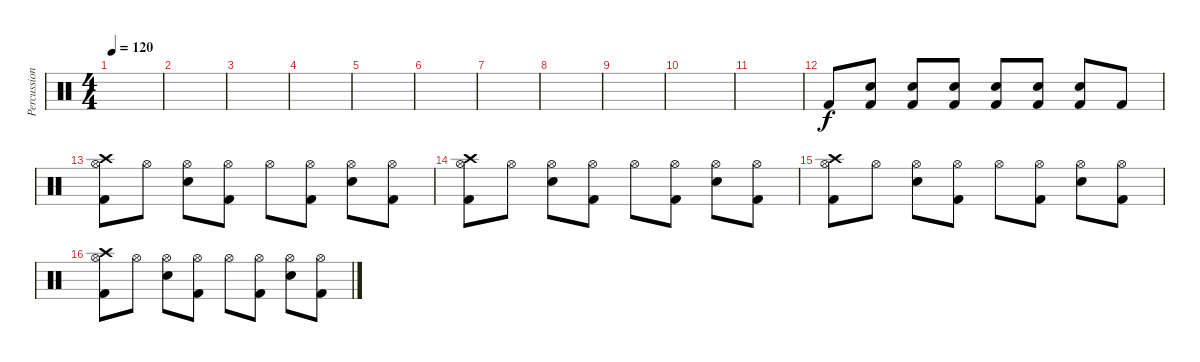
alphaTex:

\track ("Percussion" "Percussion") {instrument percussion}
\staff {score}
\articulation defaults
\ts (4 4)
\tempo 120
\clef neutral
\ks c
|
|
|
|
|
|
|
|
|
|
|
"Kick (hit) 2".8 ("Electric Snare (hit)" "Kick (hit) 2").8 ("Electric Snare (hit)" "Kick (hit) 2").8 ("Kick (hit) 2" "Electric Snare (hit)").8 ("Electric Snare (hit)" "Kick (hit) 2").8 ("Electric Snare (hit)" "Kick (hit) 2").8 ("Kick (hit) 2" "Electric Snare (hit)").8 "Kick (hit) 2".8 |
("Kick (hit) 2" "Hi-Hat (open)" "Crash high (hit)").8 "Hi-Hat (open)".8 ("Electric Snare (hit)" "Hi-Hat (open)").8 ("Kick (hit) 2" "Hi-Hat (open)").8 "Hi-Hat (open)".8 ("Kick (hit) 2" "Hi-Hat (open)").8 ("Electric Snare (hit)" "Hi-Hat (open)").8 ("Kick (hit) 2" "Hi-Hat (open)").8 |
("Kick (hit) 2" "Hi-Hat (open)" "Crash high (hit)").8 "Hi-Hat (open)".8 ("Electric Snare (hit)" "Hi-Hat (open)").8 ("Kick (hit) 2" "Hi-Hat (open)").8 "Hi-Hat (open)".8 ("Kick (hit) 2" "Hi-Hat (open)").8 ("Electric Snare (hit)" "Hi-Hat (open)").8 ("Kick (hit) 2" "Hi-Hat (open)").8 |
("Kick (hit) 2" "Hi-Hat (open)" "Crash high (hit)").8 "Hi-Hat (open)".8 ("Electric Snare (hit)" "Hi-Hat (open)").8 ("Kick (hit) 2" "Hi-Hat (open)").8 "Hi-Hat (open)".8 ("Kick (hit) 2" "Hi-Hat (open)").8 ("Electric Snare (hit)" "Hi-Hat (open)").8 ("Kick (hit) 2" "Hi-Hat (open)").8 |
("Kick (hit) 2" "Hi-Hat (open)" "Crash high (hit)").8 "Hi-Hat (open)".8 ("Electric Snare (hit)" "Hi-Hat (open)").8 ("Kick (hit) 2" "Hi-Hat (open)").8 "Hi-Hat (open)".8 ("Kick (hit) 2" "Hi-Hat (open)").8 ("Electric Snare (hit)" "Hi-Hat (open)").8 ("Kick (hit) 2" "Hi-Hat (open)").8
